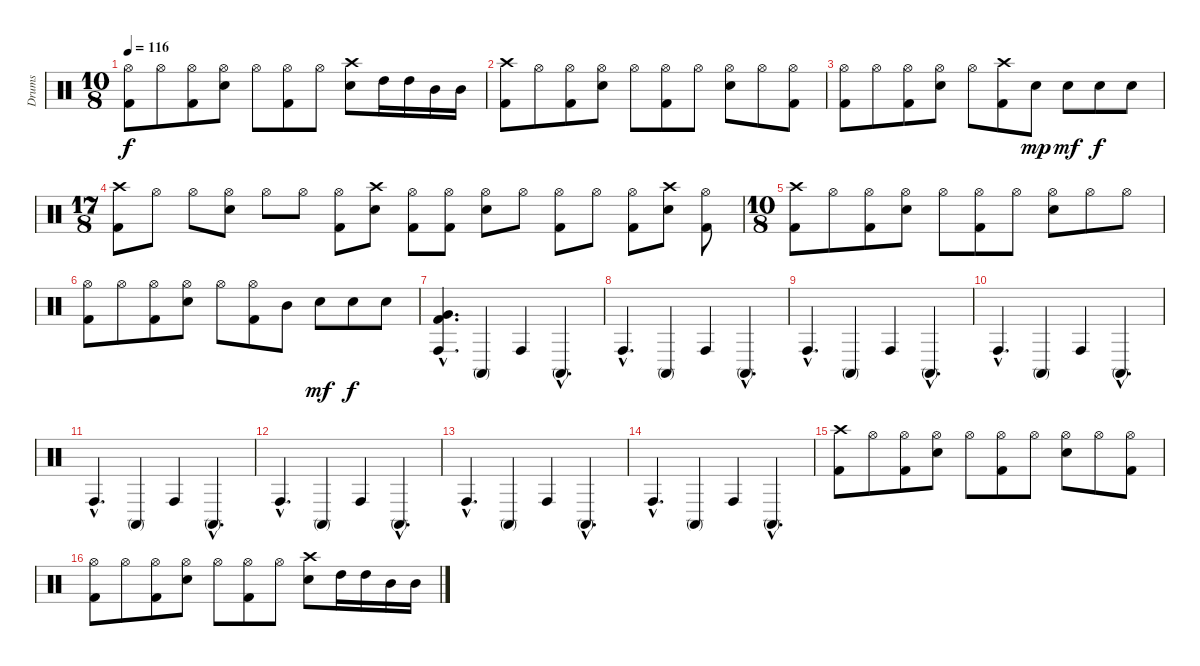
\track ("Drums" "Drums") {instrument percussion}
\staff {score}
\articulation defaults
\ts (10 8)
\tempo 116
\clef neutral
\ks c
("Hi-Hat (open)" "Kick (hit) 2").8{dy f} "Hi-Hat (open)".8 ("Hi-Hat (open)" "Kick (hit) 2").8 ("Hi-Hat (open)" "Snare (hit) 2").8 "Hi-Hat (open)".8 ("Hi-Hat (open)" "Kick (hit) 2").8 "Hi-Hat (open)".8 ("Crash high (hit)" "Snare (hit) 2").8 "High Tom (hit)".16 "High Tom (hit)".16 "Mid Tom (hit)".16 "Mid Tom (hit)".16 |
("Crash high (hit)" "Kick (hit) 2").8 "Hi-Hat (open)".8 ("Hi-Hat (open)" "Kick (hit) 2").8 ("Hi-Hat (open)" "Snare (hit) 2").8 "Hi-Hat (open)".8 ("Hi-Hat (open)" "Kick (hit) 2").8 "Hi-Hat (open)".8 ("Hi-Hat (open)" "Snare (hit) 2").8 "Hi-Hat (open)".8 ("Hi-Hat (open)" "Kick (hit) 2").8 |
("Hi-Hat (open)" "Kick (hit) 2").8 "Hi-Hat (open)".8 ("Hi-Hat (open)" "Kick (hit) 2").8 ("Hi-Hat (open)" "Snare (hit) 2").8 "Hi-Hat (open)".8 ("Crash high (hit)" "Kick (hit) 2").8 "Snare (hit) 2".8{dy mp} "Snare (hit) 2".8{dy mf} "Snare (hit) 2".8{dy f} "Snare (hit) 2".8 |
\ts (17 8)
("Crash high (hit)" "Kick (hit) 2").8 "Hi-Hat (open)".8 "Hi-Hat (open)".8 ("Hi-Hat (open)" "Snare (hit) 2").8 "Hi-Hat (open)".8 "Hi-Hat (open)".8 ("Hi-Hat (open)" "Kick (hit) 2").8 ("Crash high (hit)" "Snare (hit) 2").8 ("Hi-Hat (open)" "Kick (hit) 2").8 ("Hi-Hat (open)" "Kick (hit) 2").8 ("Hi-Hat (open)" "Snare (hit) 2").8 "Hi-Hat (open)".8 ("Hi-Hat (open)" "Kick (hit) 2").8 "Hi-Hat (open)".8 ("Hi-Hat (open)" "Kick (hit) 2").8 ("Crash high (hit)" "Snare (hit) 2").8 ("Hi-Hat (open)" "Kick (hit) 2").8 |
\ts (10 8)
("Crash high (hit)" "Kick (hit) 2").8 "Hi-Hat (open)".8 ("Hi-Hat (open)" "Kick (hit) 2").8 ("Hi-Hat (open)" "Snare (hit) 2").8 "Hi-Hat (open)".8 ("Hi-Hat (open)" "Kick (hit) 2").8 "Hi-Hat (open)".8 ("Hi-Hat (open)" "Snare (hit) 2").8 "Hi-Hat (open)".8 "Hi-Hat (open)".8 |
("Hi-Hat (open)" "Kick (hit) 2").8 "Hi-Hat (open)".8 ("Hi-Hat (open)" "Kick (hit) 2").8 ("Hi-Hat (open)" "Snare (hit) 2").8 "Hi-Hat (open)".8 ("Hi-Hat (open)" "Kick (hit) 2").8 "Mid Tom (hit)".8 "Snare (hit) 2".8{dy mf} "Snare (hit) 2".8{dy f} "Snare (hit) 2".8 |
("Conga high (hit)"{hac} "Very Low Tom (hit)"{hac} "Kick (hit) 2"{hac}).4{d} "Conga high (mute)".4 "Conga high (hit)".4 "Conga high (mute)"{hac}.4{d} |
"Conga high (hit)"{hac}.4{d} "Conga high (mute)".4 "Conga high (hit)".4 "Conga high (mute)"{hac}.4{d} |
"Conga high (hit)"{hac}.4{d} "Conga high (mute)".4 "Conga high (hit)".4 "Conga high (mute)"{hac}.4{d} |
"Conga high (hit)"{hac}.4{d} "Conga high (mute)".4 "Conga high (hit)".4 "Conga high (mute)"{hac}.4{d} |
"Conga high (hit)"{hac}.4{d} "Conga high (mute)".4 "Conga high (hit)".4 "Conga high (mute)"{hac}.4{d} |
"Conga high (hit)"{hac}.4{d} "Conga high (mute)".4 "Conga high (hit)".4 "Conga high (mute)"{hac}.4{d} |
"Conga high (hit)"{hac}.4{d} "Conga high (mute)".4 "Conga high (hit)".4 "Conga high (mute)"{hac}.4{d} |
"Conga high (hit)"{hac}.4{d} "Conga high (mute)".4 "Conga high (hit)".4 "Conga high (mute)"{hac}.4{d} |
("Crash high (hit)" "Kick (hit) 2").8 "Hi-Hat (open)".8 ("Hi-Hat (open)" "Kick (hit) 2").8 ("Hi-Hat (open)" "Snare (hit) 2").8 "Hi-Hat (open)".8 ("Hi-Hat (open)" "Kick (hit) 2").8 "Hi-Hat (open)".8 ("Hi-Hat (open)" "Snare (hit) 2").8 "Hi-Hat (open)".8 ("Hi-Hat (open)" "Kick (hit) 2").8 |
("Hi-Hat (open)" "Kick (hit) 2").8 "Hi-Hat (open)".8 ("Hi-Hat (open)" "Kick (hit) 2").8 ("Hi-Hat (open)" "Snare (hit) 2").8 "Hi-Hat (open)".8 ("Hi-Hat (open)" "Kick (hit) 2").8 "Hi-Hat (open)".8 ("Crash high (hit)" "Snare (hit) 2").8 "High Tom (hit)".16 "High Tom (hit)".16 "Mid Tom (hit)".16 "Mid Tom (hit)".16
